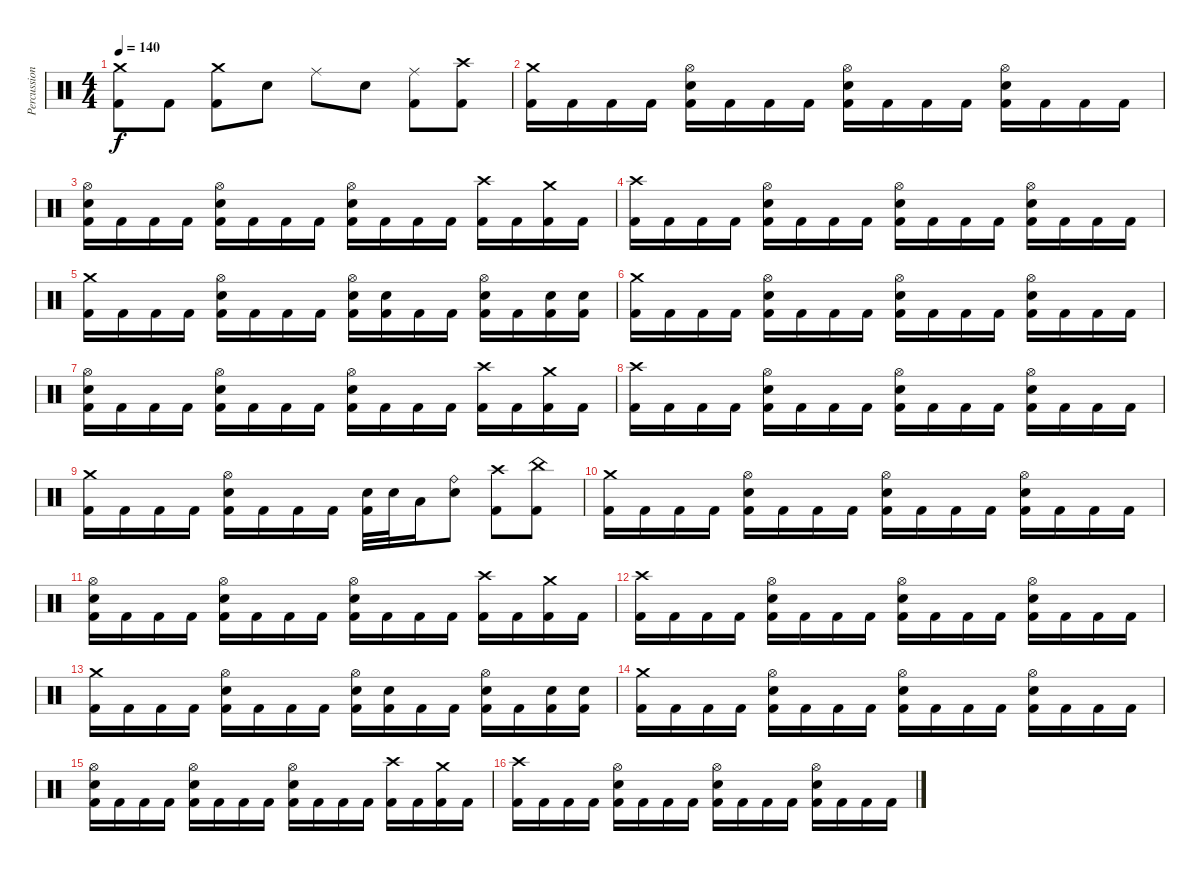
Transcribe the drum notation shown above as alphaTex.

\track ("Percussion" "Percussion") {instrument percussion}
\staff {score}
\articulation defaults
\ts (4 4)
\tempo 140
\clef neutral
\ks c
("Crash medium (hit)" "Kick (hit) 2").8{dy f} "Kick (hit) 2".8 ("Crash medium (hit)" "Kick (hit) 2").8 "Electric Snare (hit)".8 "Ride (middle)".8 "Electric Snare (hit)".8 ("Ride (middle)" "Kick (hit) 2").8 ("Crash high (hit)" "Kick (hit) 2").8 |
("Crash medium (hit)" "Kick (hit) 2").16 "Kick (hit) 2".16 "Kick (hit) 2".16 "Kick (hit) 2".16 ("Hi-Hat (open)" "Electric Snare (hit)" "Kick (hit) 2").16 "Kick (hit) 2".16 "Kick (hit) 2".16 "Kick (hit) 2".16 ("Hi-Hat (open)" "Electric Snare (hit)" "Kick (hit) 2").16 "Kick (hit) 2".16 "Kick (hit) 2".16 "Kick (hit) 2".16 ("Hi-Hat (open)" "Electric Snare (hit)" "Kick (hit) 2").16 "Kick (hit) 2".16 "Kick (hit) 2".16 "Kick (hit) 2".16 |
("Hi-Hat (open)" "Electric Snare (hit)" "Kick (hit) 2").16 "Kick (hit) 2".16 "Kick (hit) 2".16 "Kick (hit) 2".16 ("Hi-Hat (open)" "Electric Snare (hit)" "Kick (hit) 2").16 "Kick (hit) 2".16 "Kick (hit) 2".16 "Kick (hit) 2".16 ("Hi-Hat (open)" "Electric Snare (hit)" "Kick (hit) 2").16 "Kick (hit) 2".16 "Kick (hit) 2".16 "Kick (hit) 2".16 ("Crash high (hit)" "Kick (hit) 2").16 "Kick (hit) 2".16 ("Crash medium (hit)" "Kick (hit) 2").16 "Kick (hit) 2".16 |
("Crash high (hit)" "Kick (hit) 2").16 "Kick (hit) 2".16 "Kick (hit) 2".16 "Kick (hit) 2".16 ("Hi-Hat (open)" "Electric Snare (hit)" "Kick (hit) 2").16 "Kick (hit) 2".16 "Kick (hit) 2".16 "Kick (hit) 2".16 ("Hi-Hat (open)" "Electric Snare (hit)" "Kick (hit) 2").16 "Kick (hit) 2".16 "Kick (hit) 2".16 "Kick (hit) 2".16 ("Hi-Hat (open)" "Electric Snare (hit)" "Kick (hit) 2").16 "Kick (hit) 2".16 "Kick (hit) 2".16 "Kick (hit) 2".16 |
("Crash medium (hit)" "Kick (hit) 2").16 "Kick (hit) 2".16 "Kick (hit) 2".16 "Kick (hit) 2".16 ("Hi-Hat (open)" "Electric Snare (hit)" "Kick (hit) 2").16 "Kick (hit) 2".16 "Kick (hit) 2".16 "Kick (hit) 2".16 ("Hi-Hat (open)" "Electric Snare (hit)" "Kick (hit) 2").16 ("Electric Snare (hit)" "Kick (hit) 2").16 "Kick (hit) 2".16 "Kick (hit) 2".16 ("Hi-Hat (open)" "Electric Snare (hit)" "Kick (hit) 2").16 "Kick (hit) 2".16 ("Electric Snare (hit)" "Kick (hit) 2").16 ("Electric Snare (hit)" "Kick (hit) 2").16 |
("Crash medium (hit)" "Kick (hit) 2").16 "Kick (hit) 2".16 "Kick (hit) 2".16 "Kick (hit) 2".16 ("Hi-Hat (open)" "Electric Snare (hit)" "Kick (hit) 2").16 "Kick (hit) 2".16 "Kick (hit) 2".16 "Kick (hit) 2".16 ("Hi-Hat (open)" "Electric Snare (hit)" "Kick (hit) 2").16 "Kick (hit) 2".16 "Kick (hit) 2".16 "Kick (hit) 2".16 ("Hi-Hat (open)" "Electric Snare (hit)" "Kick (hit) 2").16 "Kick (hit) 2".16 "Kick (hit) 2".16 "Kick (hit) 2".16 |
("Hi-Hat (open)" "Electric Snare (hit)" "Kick (hit) 2").16 "Kick (hit) 2".16 "Kick (hit) 2".16 "Kick (hit) 2".16 ("Hi-Hat (open)" "Electric Snare (hit)" "Kick (hit) 2").16 "Kick (hit) 2".16 "Kick (hit) 2".16 "Kick (hit) 2".16 ("Hi-Hat (open)" "Electric Snare (hit)" "Kick (hit) 2").16 "Kick (hit) 2".16 "Kick (hit) 2".16 "Kick (hit) 2".16 ("Crash high (hit)" "Kick (hit) 2").16 "Kick (hit) 2".16 ("Crash medium (hit)" "Kick (hit) 2").16 "Kick (hit) 2".16 |
("Crash high (hit)" "Kick (hit) 2").16 "Kick (hit) 2".16 "Kick (hit) 2".16 "Kick (hit) 2".16 ("Hi-Hat (open)" "Electric Snare (hit)" "Kick (hit) 2").16 "Kick (hit) 2".16 "Kick (hit) 2".16 "Kick (hit) 2".16 ("Hi-Hat (open)" "Electric Snare (hit)" "Kick (hit) 2").16 "Kick (hit) 2".16 "Kick (hit) 2".16 "Kick (hit) 2".16 ("Hi-Hat (open)" "Electric Snare (hit)" "Kick (hit) 2").16 "Kick (hit) 2".16 "Kick (hit) 2".16 "Kick (hit) 2".16 |
("Crash medium (hit)" "Kick (hit) 2").16 "Kick (hit) 2".16 "Kick (hit) 2".16 "Kick (hit) 2".16 ("Hi-Hat (open)" "Electric Snare (hit)" "Kick (hit) 2").16 "Kick (hit) 2".16 "Kick (hit) 2".16 "Kick (hit) 2".16 ("Electric Snare (hit)" "Kick (hit) 2").32 "Electric Snare (hit)".32 "Low Tom (hit)".16 ("Ride (bell)" "Electric Snare (hit)").8 ("Crash high (hit)" "Kick (hit) 2").8 ("China (hit)" "Kick (hit) 2").8 |
("Crash medium (hit)" "Kick (hit) 2").16 "Kick (hit) 2".16 "Kick (hit) 2".16 "Kick (hit) 2".16 ("Hi-Hat (open)" "Electric Snare (hit)" "Kick (hit) 2").16 "Kick (hit) 2".16 "Kick (hit) 2".16 "Kick (hit) 2".16 ("Hi-Hat (open)" "Electric Snare (hit)" "Kick (hit) 2").16 "Kick (hit) 2".16 "Kick (hit) 2".16 "Kick (hit) 2".16 ("Hi-Hat (open)" "Electric Snare (hit)" "Kick (hit) 2").16 "Kick (hit) 2".16 "Kick (hit) 2".16 "Kick (hit) 2".16 |
("Hi-Hat (open)" "Electric Snare (hit)" "Kick (hit) 2").16 "Kick (hit) 2".16 "Kick (hit) 2".16 "Kick (hit) 2".16 ("Hi-Hat (open)" "Electric Snare (hit)" "Kick (hit) 2").16 "Kick (hit) 2".16 "Kick (hit) 2".16 "Kick (hit) 2".16 ("Hi-Hat (open)" "Electric Snare (hit)" "Kick (hit) 2").16 "Kick (hit) 2".16 "Kick (hit) 2".16 "Kick (hit) 2".16 ("Crash high (hit)" "Kick (hit) 2").16 "Kick (hit) 2".16 ("Crash medium (hit)" "Kick (hit) 2").16 "Kick (hit) 2".16 |
("Crash high (hit)" "Kick (hit) 2").16 "Kick (hit) 2".16 "Kick (hit) 2".16 "Kick (hit) 2".16 ("Hi-Hat (open)" "Electric Snare (hit)" "Kick (hit) 2").16 "Kick (hit) 2".16 "Kick (hit) 2".16 "Kick (hit) 2".16 ("Hi-Hat (open)" "Electric Snare (hit)" "Kick (hit) 2").16 "Kick (hit) 2".16 "Kick (hit) 2".16 "Kick (hit) 2".16 ("Hi-Hat (open)" "Electric Snare (hit)" "Kick (hit) 2").16 "Kick (hit) 2".16 "Kick (hit) 2".16 "Kick (hit) 2".16 |
("Crash medium (hit)" "Kick (hit) 2").16 "Kick (hit) 2".16 "Kick (hit) 2".16 "Kick (hit) 2".16 ("Hi-Hat (open)" "Electric Snare (hit)" "Kick (hit) 2").16 "Kick (hit) 2".16 "Kick (hit) 2".16 "Kick (hit) 2".16 ("Hi-Hat (open)" "Electric Snare (hit)" "Kick (hit) 2").16 ("Electric Snare (hit)" "Kick (hit) 2").16 "Kick (hit) 2".16 "Kick (hit) 2".16 ("Hi-Hat (open)" "Electric Snare (hit)" "Kick (hit) 2").16 "Kick (hit) 2".16 ("Electric Snare (hit)" "Kick (hit) 2").16 ("Electric Snare (hit)" "Kick (hit) 2").16 |
("Crash medium (hit)" "Kick (hit) 2").16 "Kick (hit) 2".16 "Kick (hit) 2".16 "Kick (hit) 2".16 ("Hi-Hat (open)" "Electric Snare (hit)" "Kick (hit) 2").16 "Kick (hit) 2".16 "Kick (hit) 2".16 "Kick (hit) 2".16 ("Hi-Hat (open)" "Electric Snare (hit)" "Kick (hit) 2").16 "Kick (hit) 2".16 "Kick (hit) 2".16 "Kick (hit) 2".16 ("Hi-Hat (open)" "Electric Snare (hit)" "Kick (hit) 2").16 "Kick (hit) 2".16 "Kick (hit) 2".16 "Kick (hit) 2".16 |
("Hi-Hat (open)" "Electric Snare (hit)" "Kick (hit) 2").16 "Kick (hit) 2".16 "Kick (hit) 2".16 "Kick (hit) 2".16 ("Hi-Hat (open)" "Electric Snare (hit)" "Kick (hit) 2").16 "Kick (hit) 2".16 "Kick (hit) 2".16 "Kick (hit) 2".16 ("Hi-Hat (open)" "Electric Snare (hit)" "Kick (hit) 2").16 "Kick (hit) 2".16 "Kick (hit) 2".16 "Kick (hit) 2".16 ("Crash high (hit)" "Kick (hit) 2").16 "Kick (hit) 2".16 ("Crash medium (hit)" "Kick (hit) 2").16 "Kick (hit) 2".16 |
("Crash high (hit)" "Kick (hit) 2").16 "Kick (hit) 2".16 "Kick (hit) 2".16 "Kick (hit) 2".16 ("Hi-Hat (open)" "Electric Snare (hit)" "Kick (hit) 2").16 "Kick (hit) 2".16 "Kick (hit) 2".16 "Kick (hit) 2".16 ("Hi-Hat (open)" "Electric Snare (hit)" "Kick (hit) 2").16 "Kick (hit) 2".16 "Kick (hit) 2".16 "Kick (hit) 2".16 ("Hi-Hat (open)" "Electric Snare (hit)" "Kick (hit) 2").16 "Kick (hit) 2".16 "Kick (hit) 2".16 "Kick (hit) 2".16
